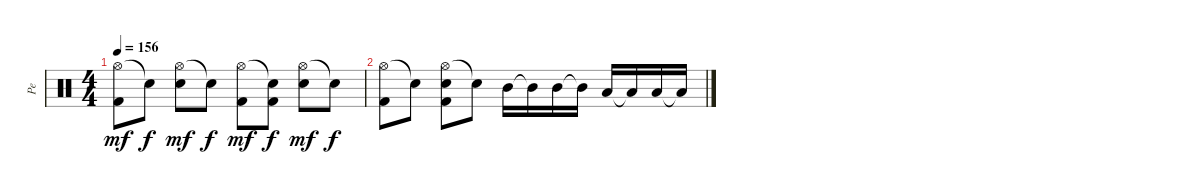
\track ("Pe" "Pe") {instrument percussion}
\staff {score}
\articulation defaults
\ts (4 4)
\tempo 156
\clef neutral
\ks c
("Hi-Hat (open)" "Kick (hit) 2").8{dy mf} "Snare (hit)"{t}.8{dy f} ("Hi-Hat (open)" "Electric Snare (hit)").8{dy mf} "Snare (hit)"{t}.8{dy f} ("Hi-Hat (open)" "Kick (hit) 2").8{dy mf} ("Snare (hit)"{t} "Kick (hit) 2").8{dy f} ("Hi-Hat (open)" "Electric Snare (hit)").8{dy mf} "Snare (hit)"{t}.8{dy f} |
("Hi-Hat (open)" "Kick (hit) 2").8 "Snare (hit)"{t}.8 ("Hi-Hat (open)" "Electric Snare (hit)" "Kick (hit) 2").8 "Snare (hit)"{t}.8 "Mid Tom (hit)".16 "Mid Tom (hit)"{t}.16 "Mid Tom (hit)".16 "Mid Tom (hit)"{t}.16 "Low Tom (hit)".16 "Low Tom (hit)"{t}.16 "Low Tom (hit)".16 "Low Tom (hit)"{t}.16
